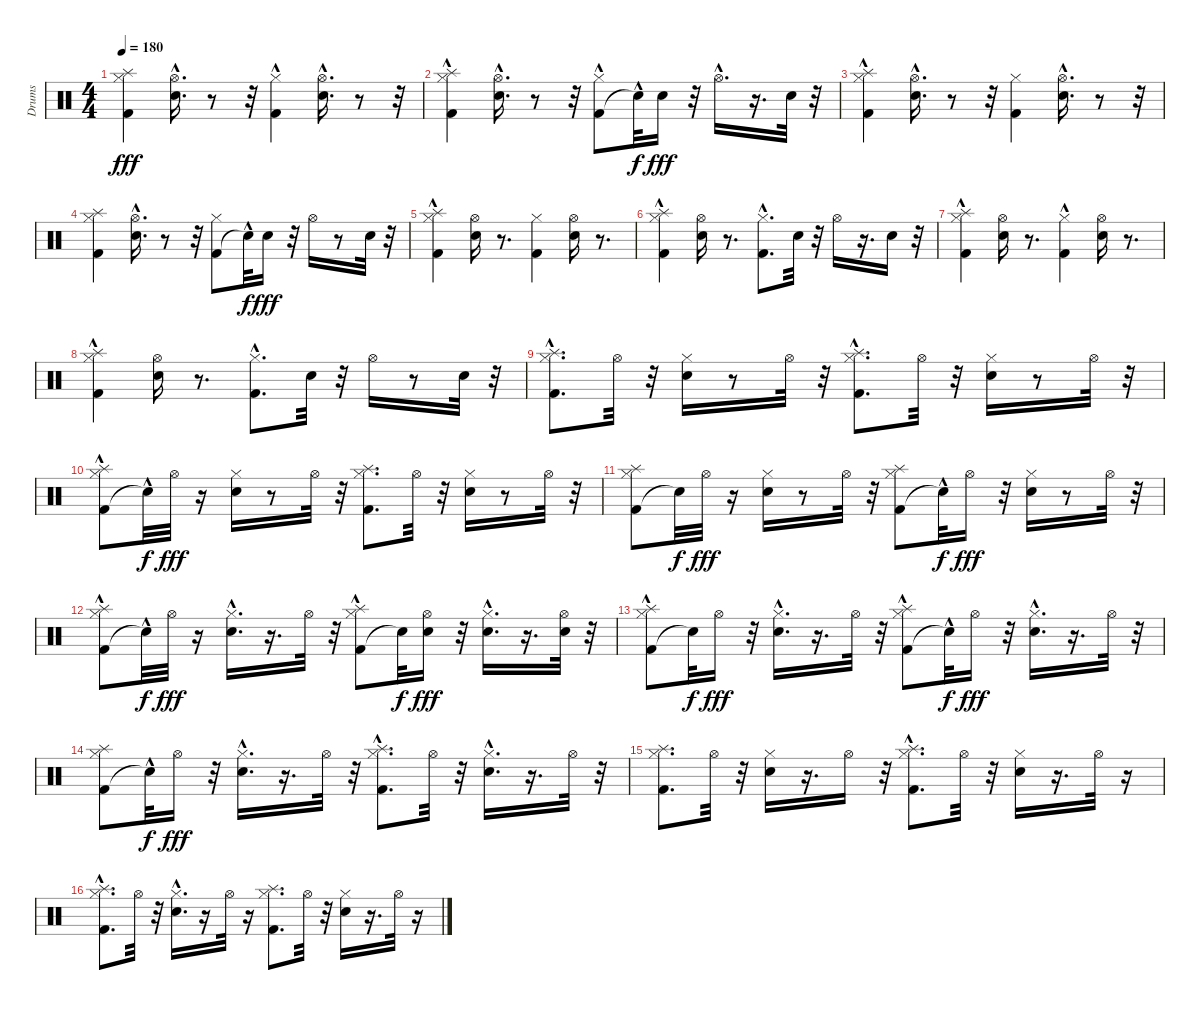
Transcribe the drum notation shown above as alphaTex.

\track ("Drums" "Drums") {instrument percussion}
\staff {score}
\articulation defaults
\ts (4 4)
\tempo 180
\clef neutral
\ks c
("Hi-Hat (closed)" "Splash (hit)" "Kick (hit) 2").4{dy fff} ("Electric Snare (hit)" "Hi-Hat (open)"{hac}).16{d} r.8 r.32 ("Kick (hit) 2" "Hi-Hat (closed)"{hac}).4 ("Electric Snare (hit)" "Hi-Hat (open)"{hac}).16{d} r.8 r.32 |
("Kick (hit) 2" "Hi-Hat (closed)"{hac} "Splash (hit)").4 ("Electric Snare (hit)" "Hi-Hat (open)"{hac}).16{d} r.8 r.32 ("Kick (hit) 2" "Hi-Hat (closed)"{hac}).8 "Snare (hit)"{hac t}.32{dy f} "Electric Snare (hit)".16{dy fff} r.32 "Hi-Hat (open)"{hac}.16{d} r.16{d} "Electric Snare (hit)".32 r.32 |
("Kick (hit) 2" "Hi-Hat (closed)"{hac} "Splash (hit)").4 ("Electric Snare (hit)" "Hi-Hat (open)"{hac}).16{d} r.8 r.32 ("Kick (hit) 2" "Hi-Hat (closed)").4 ("Electric Snare (hit)" "Hi-Hat (open)"{hac}).16{d} r.8 r.32 |
("Kick (hit) 2" "Hi-Hat (closed)" "Splash (hit)").4 ("Electric Snare (hit)" "Hi-Hat (open)"{hac}).16{d} r.8 r.32 ("Kick (hit) 2" "Hi-Hat (closed)").8 "Snare (hit)"{hac t}.32{dy f} "Electric Snare (hit)".16{dy fff} r.32 "Hi-Hat (open)".16 r.8 "Electric Snare (hit)".32 r.32 |
("Kick (hit) 2" "Hi-Hat (closed)"{hac} "Splash (hit)"{hac}).4 ("Hi-Hat (open)" "Electric Snare (hit)").16 r.8{d} ("Kick (hit) 2" "Hi-Hat (closed)").4 ("Electric Snare (hit)" "Hi-Hat (open)").16 r.8{d} |
("Kick (hit) 2" "Hi-Hat (closed)"{hac} "Splash (hit)").4 ("Electric Snare (hit)" "Hi-Hat (open)").16 r.8{d} ("Kick (hit) 2" "Hi-Hat (closed)"{hac}).8{d} "Electric Snare (hit)".32 r.32 "Hi-Hat (open)".16 r.16{d} "Electric Snare (hit)".16 r.32 |
("Kick (hit) 2" "Hi-Hat (closed)"{hac} "Splash (hit)"{hac}).4 ("Electric Snare (hit)" "Hi-Hat (open)").16 r.8{d} ("Kick (hit) 2" "Hi-Hat (closed)"{hac}).4 ("Electric Snare (hit)" "Hi-Hat (open)").16 r.8{d} |
("Kick (hit) 2" "Hi-Hat (closed)"{hac} "Splash (hit)"{hac}).4 ("Electric Snare (hit)" "Hi-Hat (open)").16 r.8{d} ("Kick (hit) 2" "Hi-Hat (closed)"{hac}).8{d} "Electric Snare (hit)".32 r.32 "Hi-Hat (open)".16 r.8 "Electric Snare (hit)".32 r.32 |
("Kick (hit) 2" "Hi-Hat (closed)" "Splash (hit)"{hac}).8{d} "Hi-Hat (open)".32 r.32 ("Electric Snare (hit)" "Hi-Hat (closed)").16 r.8 "Hi-Hat (open)".32 r.32 ("Kick (hit) 2" "Hi-Hat (closed)"{hac} "Splash (hit)").8{d} "Hi-Hat (open)".32 r.32 ("Electric Snare (hit)" "Hi-Hat (closed)").16 r.8 "Hi-Hat (open)".32 r.32 |
("Kick (hit) 2" "Hi-Hat (closed)"{hac} "Splash (hit)").8 "Snare (hit)"{hac t}.32{dy f} "Hi-Hat (open)".32{dy fff} r.16 ("Electric Snare (hit)" "Hi-Hat (closed)").16 r.8 "Hi-Hat (open)".32 r.32 ("Kick (hit) 2" "Hi-Hat (closed)" "Splash (hit)").8{d} "Hi-Hat (open)".32 r.32 ("Electric Snare (hit)" "Hi-Hat (closed)").16 r.8 "Hi-Hat (open)".32 r.32 |
("Kick (hit) 2" "Hi-Hat (closed)" "Splash (hit)").8 "Snare (hit)"{t}.32{dy f} "Hi-Hat (open)".32{dy fff} r.16 ("Electric Snare (hit)" "Hi-Hat (closed)").16 r.8 "Hi-Hat (open)".32 r.32 ("Kick (hit) 2" "Hi-Hat (closed)" "Splash (hit)").8 "Snare (hit)"{hac t}.32{dy f} "Hi-Hat (open)".16{dy fff} r.32 ("Electric Snare (hit)" "Hi-Hat (closed)").16 r.8 "Hi-Hat (open)".32 r.32 |
("Kick (hit) 2" "Hi-Hat (closed)"{hac} "Splash (hit)").8 "Snare (hit)"{hac t}.32{dy f} "Hi-Hat (open)".32{dy fff} r.16 ("Electric Snare (hit)" "Hi-Hat (closed)"{hac}).16{d} r.16{d} "Hi-Hat (open)".32 r.32 ("Kick (hit) 2" "Hi-Hat (closed)"{hac} "Splash (hit)").8 "Snare (hit)"{t}.32{dy f} ("Electric Snare (hit)" "Hi-Hat (open)").16{dy fff} r.32 ("Electric Snare (hit)" "Hi-Hat (closed)"{hac}).16{d} r.16{d} ("Electric Snare (hit)" "Hi-Hat (open)").32 r.32 |
("Kick (hit) 2" "Hi-Hat (closed)"{hac} "Splash (hit)").8 "Snare (hit)"{t}.32{dy f} "Hi-Hat (open)".16{dy fff} r.32 ("Electric Snare (hit)" "Hi-Hat (closed)"{hac}).16{d} r.16{d} "Hi-Hat (open)".32 r.32 ("Kick (hit) 2" "Hi-Hat (closed)"{hac} "Splash (hit)").8 "Snare (hit)"{hac t}.32{dy f} "Hi-Hat (open)".16{dy fff} r.32 ("Electric Snare (hit)" "Hi-Hat (closed)"{hac}).16{d} r.16{d} "Hi-Hat (open)".32 r.32 |
("Kick (hit) 2" "Hi-Hat (closed)" "Splash (hit)").8 "Snare (hit)"{hac t}.32{dy f} "Hi-Hat (open)".16{dy fff} r.32 ("Electric Snare (hit)" "Hi-Hat (closed)"{hac}).16{d} r.16{d} "Hi-Hat (open)".32 r.32 ("Kick (hit) 2"{hac} "Hi-Hat (closed)"{hac} "Splash (hit)").8{d} "Hi-Hat (open)".32 r.32 ("Electric Snare (hit)" "Hi-Hat (closed)"{hac}).16{d} r.16{d} "Hi-Hat (open)".32 r.32 |
("Kick (hit) 2" "Hi-Hat (closed)" "Splash (hit)").8{d} "Hi-Hat (open)".32 r.32 ("Hi-Hat (closed)" "Electric Snare (hit)").16 r.16{d} "Hi-Hat (open)".16 r.32 ("Kick (hit) 2"{hac} "Hi-Hat (closed)" "Splash (hit)").8{d} "Hi-Hat (open)".32 r.32 ("Hi-Hat (closed)" "Electric Snare (hit)").16 r.16{d} "Hi-Hat (open)".32 r.16 |
("Kick (hit) 2" "Hi-Hat (closed)"{hac} "Splash (hit)").8{d} "Hi-Hat (open)".32 r.32 ("Electric Snare (hit)" "Hi-Hat (closed)"{hac}).16{d} r.16 "Hi-Hat (open)".32 r.16 ("Kick (hit) 2" "Hi-Hat (closed)" "Splash (hit)").8{d} "Hi-Hat (open)".32 r.32 ("Hi-Hat (closed)" "Electric Snare (hit)").16 r.16{d} "Hi-Hat (open)".32 r.16
